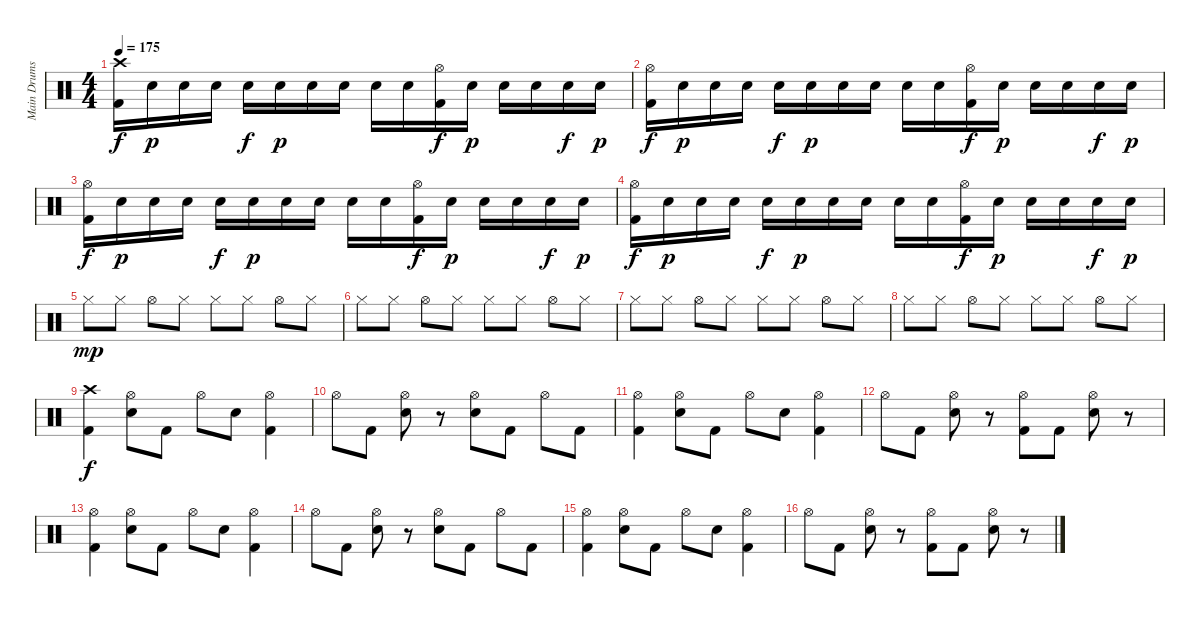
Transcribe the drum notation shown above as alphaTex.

\track ("Main Drums" "Main Drums") {instrument percussion}
\staff {score}
\articulation defaults
\ts (4 4)
\tempo 175
\clef neutral
\ks c
("Crash high (hit)" "Kick (hit) 2").16{dy f} "Electric Snare (hit)".16{dy p} "Electric Snare (hit)".16 "Electric Snare (hit)".16 "Electric Snare (hit)".16{dy f} "Electric Snare (hit)".16{dy p} "Electric Snare (hit)".16 "Electric Snare (hit)".16 "Electric Snare (hit)".16 "Electric Snare (hit)".16 ("Hi-Hat (open)" "Kick (hit) 2").16{dy f} "Electric Snare (hit)".16{dy p} "Electric Snare (hit)".16 "Electric Snare (hit)".16 "Electric Snare (hit)".16{dy f} "Electric Snare (hit)".16{dy p} |
("Hi-Hat (open)" "Kick (hit) 2").16{dy f} "Electric Snare (hit)".16{dy p} "Electric Snare (hit)".16 "Electric Snare (hit)".16 "Electric Snare (hit)".16{dy f} "Electric Snare (hit)".16{dy p} "Electric Snare (hit)".16 "Electric Snare (hit)".16 "Electric Snare (hit)".16 "Electric Snare (hit)".16 ("Hi-Hat (open)" "Kick (hit) 2").16{dy f} "Electric Snare (hit)".16{dy p} "Electric Snare (hit)".16 "Electric Snare (hit)".16 "Electric Snare (hit)".16{dy f} "Electric Snare (hit)".16{dy p} |
("Hi-Hat (open)" "Kick (hit) 2").16{dy f} "Electric Snare (hit)".16{dy p} "Electric Snare (hit)".16 "Electric Snare (hit)".16 "Electric Snare (hit)".16{dy f} "Electric Snare (hit)".16{dy p} "Electric Snare (hit)".16 "Electric Snare (hit)".16 "Electric Snare (hit)".16 "Electric Snare (hit)".16 ("Hi-Hat (open)" "Kick (hit) 2").16{dy f} "Electric Snare (hit)".16{dy p} "Electric Snare (hit)".16 "Electric Snare (hit)".16 "Electric Snare (hit)".16{dy f} "Electric Snare (hit)".16{dy p} |
("Hi-Hat (open)" "Kick (hit) 2").16{dy f} "Electric Snare (hit)".16{dy p} "Electric Snare (hit)".16 "Electric Snare (hit)".16 "Electric Snare (hit)".16{dy f} "Electric Snare (hit)".16{dy p} "Electric Snare (hit)".16 "Electric Snare (hit)".16 "Electric Snare (hit)".16 "Electric Snare (hit)".16 ("Hi-Hat (open)" "Kick (hit) 2").16{dy f} "Electric Snare (hit)".16{dy p} "Electric Snare (hit)".16 "Electric Snare (hit)".16 "Electric Snare (hit)".16{dy f} "Electric Snare (hit)".16{dy p} |
"Hi-Hat (closed)".8{dy mp} "Hi-Hat (closed)".8 "Hi-Hat (open)".8 "Hi-Hat (closed)".8 "Hi-Hat (closed)".8 "Hi-Hat (closed)".8 "Hi-Hat (open)".8 "Hi-Hat (closed)".8 |
"Hi-Hat (closed)".8 "Hi-Hat (closed)".8 "Hi-Hat (open)".8 "Hi-Hat (closed)".8 "Hi-Hat (closed)".8 "Hi-Hat (closed)".8 "Hi-Hat (open)".8 "Hi-Hat (closed)".8 |
"Hi-Hat (closed)".8 "Hi-Hat (closed)".8 "Hi-Hat (open)".8 "Hi-Hat (closed)".8 "Hi-Hat (closed)".8 "Hi-Hat (closed)".8 "Hi-Hat (open)".8 "Hi-Hat (closed)".8 |
"Hi-Hat (closed)".8 "Hi-Hat (closed)".8 "Hi-Hat (open)".8 "Hi-Hat (closed)".8 "Hi-Hat (closed)".8 "Hi-Hat (closed)".8 "Hi-Hat (open)".8 "Hi-Hat (closed)".8 |
("Crash high (hit)" "Kick (hit) 2").4{dy f} ("Hi-Hat (open)" "Electric Snare (hit)").8 "Kick (hit) 2".8 "Hi-Hat (open)".8 "Electric Snare (hit)".8 ("Hi-Hat (open)" "Kick (hit) 2").4 |
"Hi-Hat (open)".8 "Kick (hit) 2".8 ("Hi-Hat (open)" "Electric Snare (hit)").8 r.8 ("Hi-Hat (open)" "Electric Snare (hit)").8 "Kick (hit) 2".8 "Hi-Hat (open)".8 "Kick (hit) 2".8 |
("Hi-Hat (open)" "Kick (hit) 2").4 ("Hi-Hat (open)" "Electric Snare (hit)").8 "Kick (hit) 2".8 "Hi-Hat (open)".8 "Electric Snare (hit)".8 ("Hi-Hat (open)" "Kick (hit) 2").4 |
"Hi-Hat (open)".8 "Kick (hit) 2".8 ("Hi-Hat (open)" "Electric Snare (hit)").8 r.8 ("Hi-Hat (open)" "Kick (hit) 2").8 "Kick (hit) 2".8 ("Hi-Hat (open)" "Electric Snare (hit)").8 r.8 |
("Hi-Hat (open)" "Kick (hit) 2").4 ("Hi-Hat (open)" "Electric Snare (hit)").8 "Kick (hit) 2".8 "Hi-Hat (open)".8 "Electric Snare (hit)".8 ("Hi-Hat (open)" "Kick (hit) 2").4 |
"Hi-Hat (open)".8 "Kick (hit) 2".8 ("Hi-Hat (open)" "Electric Snare (hit)").8 r.8 ("Hi-Hat (open)" "Electric Snare (hit)").8 "Kick (hit) 2".8 "Hi-Hat (open)".8 "Kick (hit) 2".8 |
("Hi-Hat (open)" "Kick (hit) 2").4 ("Hi-Hat (open)" "Electric Snare (hit)").8 "Kick (hit) 2".8 "Hi-Hat (open)".8 "Electric Snare (hit)".8 ("Hi-Hat (open)" "Kick (hit) 2").4 |
"Hi-Hat (open)".8 "Kick (hit) 2".8 ("Hi-Hat (open)" "Electric Snare (hit)").8 r.8 ("Hi-Hat (open)" "Kick (hit) 2").8 "Kick (hit) 2".8 ("Hi-Hat (open)" "Electric Snare (hit)").8 r.8
